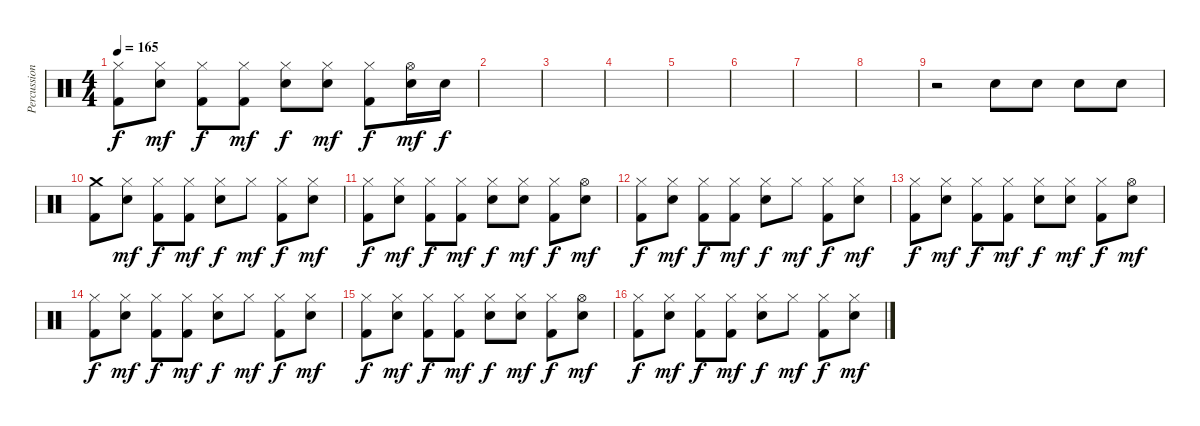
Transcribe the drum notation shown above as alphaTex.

\track ("Percussion" "Percussion") {instrument percussion}
\staff {score}
\articulation defaults
\ts (4 4)
\tempo 165
\clef neutral
\ks c
("Hi-Hat (closed)" "Kick (hit) 2").8{dy f} ("Hi-Hat (closed)" "Snare (hit) 2").8{dy mf} ("Hi-Hat (closed)" "Kick (hit) 2").8{dy f} ("Hi-Hat (closed)" "Kick (hit) 2").8{dy mf} ("Hi-Hat (closed)" "Snare (hit) 2").8{dy f} ("Hi-Hat (closed)" "Snare (hit) 2").8{dy mf} ("Hi-Hat (closed)" "Kick (hit) 2").8{dy f} ("Hi-Hat (open)" "Snare (hit) 2").16{dy mf} "Snare (hit) 2".16{dy f} |
|
|
|
|
|
|
|
r.2 "Snare (hit) 2".8 "Snare (hit) 2".8 "Snare (hit) 2".8 "Snare (hit) 2".8 |
("Crash medium (hit)" "Kick (hit) 2").8 ("Hi-Hat (closed)" "Snare (hit) 2").8{dy mf} ("Hi-Hat (closed)" "Kick (hit) 2").8{dy f} ("Hi-Hat (closed)" "Kick (hit) 2").8{dy mf} ("Hi-Hat (closed)" "Snare (hit) 2").8{dy f} "Hi-Hat (closed)".8{dy mf} ("Hi-Hat (closed)" "Kick (hit) 2").8{dy f} ("Hi-Hat (closed)" "Snare (hit) 2").8{dy mf} |
("Hi-Hat (closed)" "Kick (hit) 2").8{dy f} ("Hi-Hat (closed)" "Snare (hit) 2").8{dy mf} ("Hi-Hat (closed)" "Kick (hit) 2").8{dy f} ("Hi-Hat (closed)" "Kick (hit) 2").8{dy mf} ("Hi-Hat (closed)" "Snare (hit) 2").8{dy f} ("Hi-Hat (closed)" "Snare (hit) 2").8{dy mf} ("Hi-Hat (closed)" "Kick (hit) 2").8{dy f} ("Hi-Hat (open)" "Snare (hit) 2").8{dy mf} |
("Hi-Hat (closed)" "Kick (hit) 2").8{dy f} ("Hi-Hat (closed)" "Snare (hit) 2").8{dy mf} ("Hi-Hat (closed)" "Kick (hit) 2").8{dy f} ("Hi-Hat (closed)" "Kick (hit) 2").8{dy mf} ("Hi-Hat (closed)" "Snare (hit) 2").8{dy f} "Hi-Hat (closed)".8{dy mf} ("Hi-Hat (closed)" "Kick (hit) 2").8{dy f} ("Hi-Hat (closed)" "Snare (hit) 2").8{dy mf} |
("Hi-Hat (closed)" "Kick (hit) 2").8{dy f} ("Hi-Hat (closed)" "Snare (hit) 2").8{dy mf} ("Hi-Hat (closed)" "Kick (hit) 2").8{dy f} ("Hi-Hat (closed)" "Kick (hit) 2").8{dy mf} ("Hi-Hat (closed)" "Snare (hit) 2").8{dy f} ("Hi-Hat (closed)" "Snare (hit) 2").8{dy mf} ("Hi-Hat (closed)" "Kick (hit) 2").8{dy f} ("Hi-Hat (open)" "Snare (hit) 2").8{dy mf} |
("Hi-Hat (closed)" "Kick (hit) 2").8{dy f} ("Hi-Hat (closed)" "Snare (hit) 2").8{dy mf} ("Hi-Hat (closed)" "Kick (hit) 2").8{dy f} ("Hi-Hat (closed)" "Kick (hit) 2").8{dy mf} ("Hi-Hat (closed)" "Snare (hit) 2").8{dy f} "Hi-Hat (closed)".8{dy mf} ("Hi-Hat (closed)" "Kick (hit) 2").8{dy f} ("Hi-Hat (closed)" "Snare (hit) 2").8{dy mf} |
("Hi-Hat (closed)" "Kick (hit) 2").8{dy f} ("Hi-Hat (closed)" "Snare (hit) 2").8{dy mf} ("Hi-Hat (closed)" "Kick (hit) 2").8{dy f} ("Hi-Hat (closed)" "Kick (hit) 2").8{dy mf} ("Hi-Hat (closed)" "Snare (hit) 2").8{dy f} ("Hi-Hat (closed)" "Snare (hit) 2").8{dy mf} ("Hi-Hat (closed)" "Kick (hit) 2").8{dy f} ("Hi-Hat (open)" "Snare (hit) 2").8{dy mf} |
("Hi-Hat (closed)" "Kick (hit) 2").8{dy f} ("Hi-Hat (closed)" "Snare (hit) 2").8{dy mf} ("Hi-Hat (closed)" "Kick (hit) 2").8{dy f} ("Hi-Hat (closed)" "Kick (hit) 2").8{dy mf} ("Hi-Hat (closed)" "Snare (hit) 2").8{dy f} "Hi-Hat (closed)".8{dy mf} ("Hi-Hat (closed)" "Kick (hit) 2").8{dy f} ("Hi-Hat (closed)" "Snare (hit) 2").8{dy mf}
